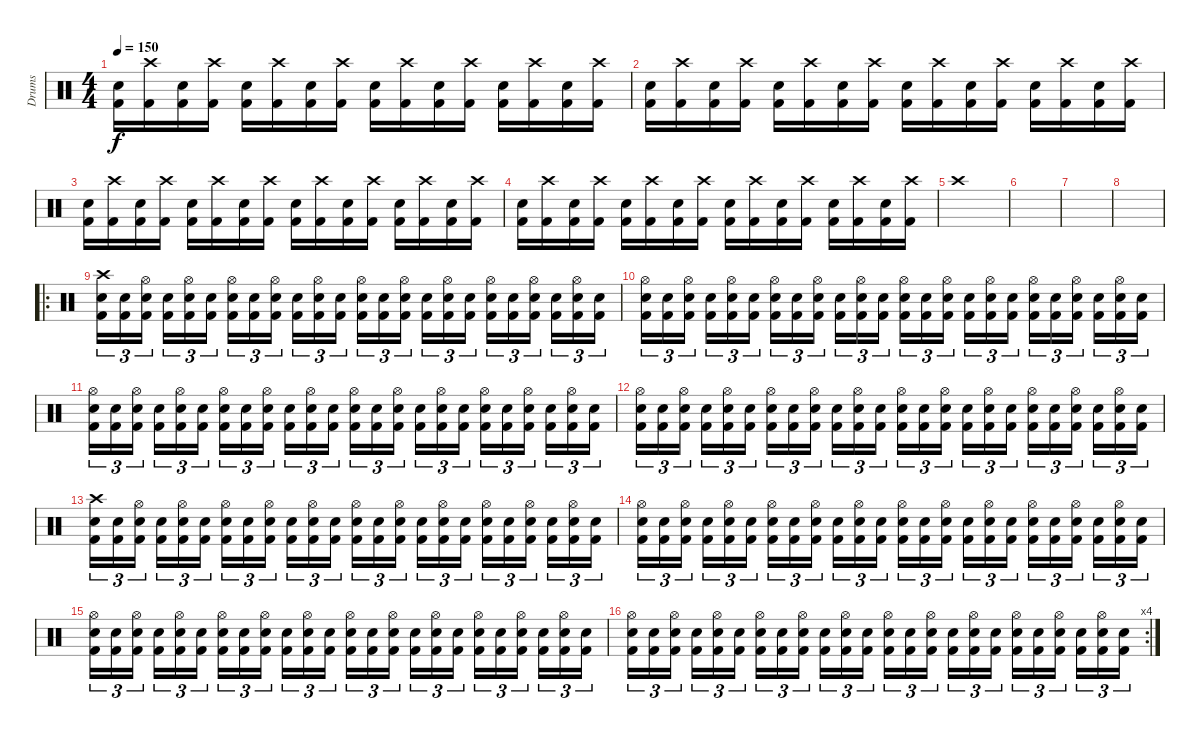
\track ("Drums" "Drums") {instrument percussion}
\staff {score}
\articulation defaults
\ts (4 4)
\tempo 150
\clef neutral
\ks c
("Snare (hit) 2" "Kick (hit) 2").16{dy f} ("Crash high (hit)" "Kick (hit) 2").16 ("Snare (hit) 2" "Kick (hit) 2").16 ("Crash high (hit)" "Kick (hit) 2").16 ("Snare (hit) 2" "Kick (hit) 2").16 ("Crash high (hit)" "Kick (hit) 2").16 ("Snare (hit) 2" "Kick (hit) 2").16 ("Crash high (hit)" "Kick (hit) 2").16 ("Snare (hit) 2" "Kick (hit) 2").16 ("Crash high (hit)" "Kick (hit) 2").16 ("Snare (hit) 2" "Kick (hit) 2").16 ("Crash high (hit)" "Kick (hit) 2").16 ("Snare (hit) 2" "Kick (hit) 2").16 ("Crash high (hit)" "Kick (hit) 2").16 ("Snare (hit) 2" "Kick (hit) 2").16 ("Crash high (hit)" "Kick (hit) 2").16 |
("Snare (hit) 2" "Kick (hit) 2").16 ("Crash high (hit)" "Kick (hit) 2").16 ("Snare (hit) 2" "Kick (hit) 2").16 ("Crash high (hit)" "Kick (hit) 2").16 ("Snare (hit) 2" "Kick (hit) 2").16 ("Crash high (hit)" "Kick (hit) 2").16 ("Snare (hit) 2" "Kick (hit) 2").16 ("Crash high (hit)" "Kick (hit) 2").16 ("Snare (hit) 2" "Kick (hit) 2").16 ("Crash high (hit)" "Kick (hit) 2").16 ("Snare (hit) 2" "Kick (hit) 2").16 ("Crash high (hit)" "Kick (hit) 2").16 ("Snare (hit) 2" "Kick (hit) 2").16 ("Crash high (hit)" "Kick (hit) 2").16 ("Snare (hit) 2" "Kick (hit) 2").16 ("Crash high (hit)" "Kick (hit) 2").16 |
("Snare (hit) 2" "Kick (hit) 2").16 ("Crash high (hit)" "Kick (hit) 2").16 ("Snare (hit) 2" "Kick (hit) 2").16 ("Crash high (hit)" "Kick (hit) 2").16 ("Snare (hit) 2" "Kick (hit) 2").16 ("Crash high (hit)" "Kick (hit) 2").16 ("Snare (hit) 2" "Kick (hit) 2").16 ("Crash high (hit)" "Kick (hit) 2").16 ("Snare (hit) 2" "Kick (hit) 2").16 ("Crash high (hit)" "Kick (hit) 2").16 ("Snare (hit) 2" "Kick (hit) 2").16 ("Crash high (hit)" "Kick (hit) 2").16 ("Snare (hit) 2" "Kick (hit) 2").16 ("Crash high (hit)" "Kick (hit) 2").16 ("Snare (hit) 2" "Kick (hit) 2").16 ("Crash high (hit)" "Kick (hit) 2").16 |
("Snare (hit) 2" "Kick (hit) 2").16 ("Crash high (hit)" "Kick (hit) 2").16 ("Snare (hit) 2" "Kick (hit) 2").16 ("Crash high (hit)" "Kick (hit) 2").16 ("Snare (hit) 2" "Kick (hit) 2").16 ("Crash high (hit)" "Kick (hit) 2").16 ("Snare (hit) 2" "Kick (hit) 2").16 ("Crash high (hit)" "Kick (hit) 2").16 ("Snare (hit) 2" "Kick (hit) 2").16 ("Crash high (hit)" "Kick (hit) 2").16 ("Snare (hit) 2" "Kick (hit) 2").16 ("Crash high (hit)" "Kick (hit) 2").16 ("Snare (hit) 2" "Kick (hit) 2").16 ("Crash high (hit)" "Kick (hit) 2").16 ("Snare (hit) 2" "Kick (hit) 2").16 ("Crash high (hit)" "Kick (hit) 2").16 |
"Crash high (hit)".1 |
|
|
|
\ro
("Crash high (hit)" "Snare (hit) 2" "Kick (hit) 2").16{tu (3 2)} ("Snare (hit) 2" "Kick (hit) 2").16{tu (3 2)} ("Hi-Hat (open)" "Snare (hit) 2" "Kick (hit) 2").16{tu (3 2)} ("Snare (hit) 2" "Kick (hit) 2").16{tu (3 2)} ("Hi-Hat (open)" "Snare (hit) 2" "Kick (hit) 2").16{tu (3 2)} ("Snare (hit) 2" "Kick (hit) 2").16{tu (3 2)} ("Hi-Hat (open)" "Snare (hit) 2" "Kick (hit) 2").16{tu (3 2)} ("Snare (hit) 2" "Kick (hit) 2").16{tu (3 2)} ("Hi-Hat (open)" "Snare (hit) 2" "Kick (hit) 2").16{tu (3 2)} ("Snare (hit) 2" "Kick (hit) 2").16{tu (3 2)} ("Hi-Hat (open)" "Snare (hit) 2" "Kick (hit) 2").16{tu (3 2)} ("Snare (hit) 2" "Kick (hit) 2").16{tu (3 2)} ("Hi-Hat (open)" "Snare (hit) 2" "Kick (hit) 2").16{tu (3 2)} ("Snare (hit) 2" "Kick (hit) 2").16{tu (3 2)} ("Hi-Hat (open)" "Snare (hit) 2" "Kick (hit) 2").16{tu (3 2)} ("Snare (hit) 2" "Kick (hit) 2").16{tu (3 2)} ("Hi-Hat (open)" "Snare (hit) 2" "Kick (hit) 2").16{tu (3 2)} ("Snare (hit) 2" "Kick (hit) 2").16{tu (3 2)} ("Hi-Hat (open)" "Snare (hit) 2" "Kick (hit) 2").16{tu (3 2)} ("Snare (hit) 2" "Kick (hit) 2").16{tu (3 2)} ("Hi-Hat (open)" "Snare (hit) 2" "Kick (hit) 2").16{tu (3 2)} ("Snare (hit) 2" "Kick (hit) 2").16{tu (3 2)} ("Hi-Hat (open)" "Snare (hit) 2" "Kick (hit) 2").16{tu (3 2)} ("Snare (hit) 2" "Kick (hit) 2").16{tu (3 2)} |
("Hi-Hat (open)" "Snare (hit) 2" "Kick (hit) 2").16{tu (3 2)} ("Snare (hit) 2" "Kick (hit) 2").16{tu (3 2)} ("Hi-Hat (open)" "Snare (hit) 2" "Kick (hit) 2").16{tu (3 2)} ("Snare (hit) 2" "Kick (hit) 2").16{tu (3 2)} ("Hi-Hat (open)" "Snare (hit) 2" "Kick (hit) 2").16{tu (3 2)} ("Snare (hit) 2" "Kick (hit) 2").16{tu (3 2)} ("Hi-Hat (open)" "Snare (hit) 2" "Kick (hit) 2").16{tu (3 2)} ("Snare (hit) 2" "Kick (hit) 2").16{tu (3 2)} ("Hi-Hat (open)" "Snare (hit) 2" "Kick (hit) 2").16{tu (3 2)} ("Snare (hit) 2" "Kick (hit) 2").16{tu (3 2)} ("Hi-Hat (open)" "Snare (hit) 2" "Kick (hit) 2").16{tu (3 2)} ("Snare (hit) 2" "Kick (hit) 2").16{tu (3 2)} ("Hi-Hat (open)" "Snare (hit) 2" "Kick (hit) 2").16{tu (3 2)} ("Snare (hit) 2" "Kick (hit) 2").16{tu (3 2)} ("Hi-Hat (open)" "Snare (hit) 2" "Kick (hit) 2").16{tu (3 2)} ("Snare (hit) 2" "Kick (hit) 2").16{tu (3 2)} ("Hi-Hat (open)" "Snare (hit) 2" "Kick (hit) 2").16{tu (3 2)} ("Snare (hit) 2" "Kick (hit) 2").16{tu (3 2)} ("Hi-Hat (open)" "Snare (hit) 2" "Kick (hit) 2").16{tu (3 2)} ("Snare (hit) 2" "Kick (hit) 2").16{tu (3 2)} ("Hi-Hat (open)" "Snare (hit) 2" "Kick (hit) 2").16{tu (3 2)} ("Snare (hit) 2" "Kick (hit) 2").16{tu (3 2)} ("Hi-Hat (open)" "Snare (hit) 2" "Kick (hit) 2").16{tu (3 2)} ("Snare (hit) 2" "Kick (hit) 2").16{tu (3 2)} |
("Hi-Hat (open)" "Snare (hit) 2" "Kick (hit) 2").16{tu (3 2)} ("Snare (hit) 2" "Kick (hit) 2").16{tu (3 2)} ("Hi-Hat (open)" "Snare (hit) 2" "Kick (hit) 2").16{tu (3 2)} ("Snare (hit) 2" "Kick (hit) 2").16{tu (3 2)} ("Hi-Hat (open)" "Snare (hit) 2" "Kick (hit) 2").16{tu (3 2)} ("Snare (hit) 2" "Kick (hit) 2").16{tu (3 2)} ("Hi-Hat (open)" "Snare (hit) 2" "Kick (hit) 2").16{tu (3 2)} ("Snare (hit) 2" "Kick (hit) 2").16{tu (3 2)} ("Hi-Hat (open)" "Snare (hit) 2" "Kick (hit) 2").16{tu (3 2)} ("Snare (hit) 2" "Kick (hit) 2").16{tu (3 2)} ("Hi-Hat (open)" "Snare (hit) 2" "Kick (hit) 2").16{tu (3 2)} ("Snare (hit) 2" "Kick (hit) 2").16{tu (3 2)} ("Hi-Hat (open)" "Snare (hit) 2" "Kick (hit) 2").16{tu (3 2)} ("Snare (hit) 2" "Kick (hit) 2").16{tu (3 2)} ("Hi-Hat (open)" "Snare (hit) 2" "Kick (hit) 2").16{tu (3 2)} ("Snare (hit) 2" "Kick (hit) 2").16{tu (3 2)} ("Hi-Hat (open)" "Snare (hit) 2" "Kick (hit) 2").16{tu (3 2)} ("Snare (hit) 2" "Kick (hit) 2").16{tu (3 2)} ("Hi-Hat (open)" "Snare (hit) 2" "Kick (hit) 2").16{tu (3 2)} ("Snare (hit) 2" "Kick (hit) 2").16{tu (3 2)} ("Hi-Hat (open)" "Snare (hit) 2" "Kick (hit) 2").16{tu (3 2)} ("Snare (hit) 2" "Kick (hit) 2").16{tu (3 2)} ("Hi-Hat (open)" "Snare (hit) 2" "Kick (hit) 2").16{tu (3 2)} ("Snare (hit) 2" "Kick (hit) 2").16{tu (3 2)} |
("Hi-Hat (open)" "Snare (hit) 2" "Kick (hit) 2").16{tu (3 2)} ("Snare (hit) 2" "Kick (hit) 2").16{tu (3 2)} ("Hi-Hat (open)" "Snare (hit) 2" "Kick (hit) 2").16{tu (3 2)} ("Snare (hit) 2" "Kick (hit) 2").16{tu (3 2)} ("Hi-Hat (open)" "Snare (hit) 2" "Kick (hit) 2").16{tu (3 2)} ("Snare (hit) 2" "Kick (hit) 2").16{tu (3 2)} ("Hi-Hat (open)" "Snare (hit) 2" "Kick (hit) 2").16{tu (3 2)} ("Snare (hit) 2" "Kick (hit) 2").16{tu (3 2)} ("Hi-Hat (open)" "Snare (hit) 2" "Kick (hit) 2").16{tu (3 2)} ("Snare (hit) 2" "Kick (hit) 2").16{tu (3 2)} ("Hi-Hat (open)" "Snare (hit) 2" "Kick (hit) 2").16{tu (3 2)} ("Snare (hit) 2" "Kick (hit) 2").16{tu (3 2)} ("Hi-Hat (open)" "Snare (hit) 2" "Kick (hit) 2").16{tu (3 2)} ("Snare (hit) 2" "Kick (hit) 2").16{tu (3 2)} ("Hi-Hat (open)" "Snare (hit) 2" "Kick (hit) 2").16{tu (3 2)} ("Snare (hit) 2" "Kick (hit) 2").16{tu (3 2)} ("Hi-Hat (open)" "Snare (hit) 2" "Kick (hit) 2").16{tu (3 2)} ("Snare (hit) 2" "Kick (hit) 2").16{tu (3 2)} ("Hi-Hat (open)" "Snare (hit) 2" "Kick (hit) 2").16{tu (3 2)} ("Snare (hit) 2" "Kick (hit) 2").16{tu (3 2)} ("Hi-Hat (open)" "Snare (hit) 2" "Kick (hit) 2").16{tu (3 2)} ("Snare (hit) 2" "Kick (hit) 2").16{tu (3 2)} ("Hi-Hat (open)" "Snare (hit) 2" "Kick (hit) 2").16{tu (3 2)} ("Snare (hit) 2" "Kick (hit) 2").16{tu (3 2)} |
("Crash high (hit)" "Snare (hit) 2" "Kick (hit) 2").16{tu (3 2)} ("Snare (hit) 2" "Kick (hit) 2").16{tu (3 2)} ("Hi-Hat (open)" "Snare (hit) 2" "Kick (hit) 2").16{tu (3 2)} ("Snare (hit) 2" "Kick (hit) 2").16{tu (3 2)} ("Hi-Hat (open)" "Snare (hit) 2" "Kick (hit) 2").16{tu (3 2)} ("Snare (hit) 2" "Kick (hit) 2").16{tu (3 2)} ("Hi-Hat (open)" "Snare (hit) 2" "Kick (hit) 2").16{tu (3 2)} ("Snare (hit) 2" "Kick (hit) 2").16{tu (3 2)} ("Hi-Hat (open)" "Snare (hit) 2" "Kick (hit) 2").16{tu (3 2)} ("Snare (hit) 2" "Kick (hit) 2").16{tu (3 2)} ("Hi-Hat (open)" "Snare (hit) 2" "Kick (hit) 2").16{tu (3 2)} ("Snare (hit) 2" "Kick (hit) 2").16{tu (3 2)} ("Hi-Hat (open)" "Snare (hit) 2" "Kick (hit) 2").16{tu (3 2)} ("Snare (hit) 2" "Kick (hit) 2").16{tu (3 2)} ("Hi-Hat (open)" "Snare (hit) 2" "Kick (hit) 2").16{tu (3 2)} ("Snare (hit) 2" "Kick (hit) 2").16{tu (3 2)} ("Hi-Hat (open)" "Snare (hit) 2" "Kick (hit) 2").16{tu (3 2)} ("Snare (hit) 2" "Kick (hit) 2").16{tu (3 2)} ("Hi-Hat (open)" "Snare (hit) 2" "Kick (hit) 2").16{tu (3 2)} ("Snare (hit) 2" "Kick (hit) 2").16{tu (3 2)} ("Hi-Hat (open)" "Snare (hit) 2" "Kick (hit) 2").16{tu (3 2)} ("Snare (hit) 2" "Kick (hit) 2").16{tu (3 2)} ("Hi-Hat (open)" "Snare (hit) 2" "Kick (hit) 2").16{tu (3 2)} ("Snare (hit) 2" "Kick (hit) 2").16{tu (3 2)} |
("Hi-Hat (open)" "Snare (hit) 2" "Kick (hit) 2").16{tu (3 2)} ("Snare (hit) 2" "Kick (hit) 2").16{tu (3 2)} ("Hi-Hat (open)" "Snare (hit) 2" "Kick (hit) 2").16{tu (3 2)} ("Snare (hit) 2" "Kick (hit) 2").16{tu (3 2)} ("Hi-Hat (open)" "Snare (hit) 2" "Kick (hit) 2").16{tu (3 2)} ("Snare (hit) 2" "Kick (hit) 2").16{tu (3 2)} ("Hi-Hat (open)" "Snare (hit) 2" "Kick (hit) 2").16{tu (3 2)} ("Snare (hit) 2" "Kick (hit) 2").16{tu (3 2)} ("Hi-Hat (open)" "Snare (hit) 2" "Kick (hit) 2").16{tu (3 2)} ("Snare (hit) 2" "Kick (hit) 2").16{tu (3 2)} ("Hi-Hat (open)" "Snare (hit) 2" "Kick (hit) 2").16{tu (3 2)} ("Snare (hit) 2" "Kick (hit) 2").16{tu (3 2)} ("Hi-Hat (open)" "Snare (hit) 2" "Kick (hit) 2").16{tu (3 2)} ("Snare (hit) 2" "Kick (hit) 2").16{tu (3 2)} ("Hi-Hat (open)" "Snare (hit) 2" "Kick (hit) 2").16{tu (3 2)} ("Snare (hit) 2" "Kick (hit) 2").16{tu (3 2)} ("Hi-Hat (open)" "Snare (hit) 2" "Kick (hit) 2").16{tu (3 2)} ("Snare (hit) 2" "Kick (hit) 2").16{tu (3 2)} ("Hi-Hat (open)" "Snare (hit) 2" "Kick (hit) 2").16{tu (3 2)} ("Snare (hit) 2" "Kick (hit) 2").16{tu (3 2)} ("Hi-Hat (open)" "Snare (hit) 2" "Kick (hit) 2").16{tu (3 2)} ("Snare (hit) 2" "Kick (hit) 2").16{tu (3 2)} ("Hi-Hat (open)" "Snare (hit) 2" "Kick (hit) 2").16{tu (3 2)} ("Snare (hit) 2" "Kick (hit) 2").16{tu (3 2)} |
("Hi-Hat (open)" "Snare (hit) 2" "Kick (hit) 2").16{tu (3 2)} ("Snare (hit) 2" "Kick (hit) 2").16{tu (3 2)} ("Hi-Hat (open)" "Snare (hit) 2" "Kick (hit) 2").16{tu (3 2)} ("Snare (hit) 2" "Kick (hit) 2").16{tu (3 2)} ("Hi-Hat (open)" "Snare (hit) 2" "Kick (hit) 2").16{tu (3 2)} ("Snare (hit) 2" "Kick (hit) 2").16{tu (3 2)} ("Hi-Hat (open)" "Snare (hit) 2" "Kick (hit) 2").16{tu (3 2)} ("Snare (hit) 2" "Kick (hit) 2").16{tu (3 2)} ("Hi-Hat (open)" "Snare (hit) 2" "Kick (hit) 2").16{tu (3 2)} ("Snare (hit) 2" "Kick (hit) 2").16{tu (3 2)} ("Hi-Hat (open)" "Snare (hit) 2" "Kick (hit) 2").16{tu (3 2)} ("Snare (hit) 2" "Kick (hit) 2").16{tu (3 2)} ("Hi-Hat (open)" "Snare (hit) 2" "Kick (hit) 2").16{tu (3 2)} ("Snare (hit) 2" "Kick (hit) 2").16{tu (3 2)} ("Hi-Hat (open)" "Snare (hit) 2" "Kick (hit) 2").16{tu (3 2)} ("Snare (hit) 2" "Kick (hit) 2").16{tu (3 2)} ("Hi-Hat (open)" "Snare (hit) 2" "Kick (hit) 2").16{tu (3 2)} ("Snare (hit) 2" "Kick (hit) 2").16{tu (3 2)} ("Hi-Hat (open)" "Snare (hit) 2" "Kick (hit) 2").16{tu (3 2)} ("Snare (hit) 2" "Kick (hit) 2").16{tu (3 2)} ("Hi-Hat (open)" "Snare (hit) 2" "Kick (hit) 2").16{tu (3 2)} ("Snare (hit) 2" "Kick (hit) 2").16{tu (3 2)} ("Hi-Hat (open)" "Snare (hit) 2" "Kick (hit) 2").16{tu (3 2)} ("Snare (hit) 2" "Kick (hit) 2").16{tu (3 2)} |
\rc 4
("Hi-Hat (open)" "Snare (hit) 2" "Kick (hit) 2").16{tu (3 2)} ("Snare (hit) 2" "Kick (hit) 2").16{tu (3 2)} ("Hi-Hat (open)" "Snare (hit) 2" "Kick (hit) 2").16{tu (3 2)} ("Snare (hit) 2" "Kick (hit) 2").16{tu (3 2)} ("Hi-Hat (open)" "Snare (hit) 2" "Kick (hit) 2").16{tu (3 2)} ("Snare (hit) 2" "Kick (hit) 2").16{tu (3 2)} ("Hi-Hat (open)" "Snare (hit) 2" "Kick (hit) 2").16{tu (3 2)} ("Snare (hit) 2" "Kick (hit) 2").16{tu (3 2)} ("Hi-Hat (open)" "Snare (hit) 2" "Kick (hit) 2").16{tu (3 2)} ("Snare (hit) 2" "Kick (hit) 2").16{tu (3 2)} ("Hi-Hat (open)" "Snare (hit) 2" "Kick (hit) 2").16{tu (3 2)} ("Snare (hit) 2" "Kick (hit) 2").16{tu (3 2)} ("Hi-Hat (open)" "Snare (hit) 2" "Kick (hit) 2").16{tu (3 2)} ("Snare (hit) 2" "Kick (hit) 2").16{tu (3 2)} ("Hi-Hat (open)" "Snare (hit) 2" "Kick (hit) 2").16{tu (3 2)} ("Snare (hit) 2" "Kick (hit) 2").16{tu (3 2)} ("Hi-Hat (open)" "Snare (hit) 2" "Kick (hit) 2").16{tu (3 2)} ("Snare (hit) 2" "Kick (hit) 2").16{tu (3 2)} ("Hi-Hat (open)" "Snare (hit) 2" "Kick (hit) 2").16{tu (3 2)} ("Snare (hit) 2" "Kick (hit) 2").16{tu (3 2)} ("Hi-Hat (open)" "Snare (hit) 2" "Kick (hit) 2").16{tu (3 2)} ("Snare (hit) 2" "Kick (hit) 2").16{tu (3 2)} ("Hi-Hat (open)" "Snare (hit) 2" "Kick (hit) 2").16{tu (3 2)} ("Snare (hit) 2" "Kick (hit) 2").16{tu (3 2)}
